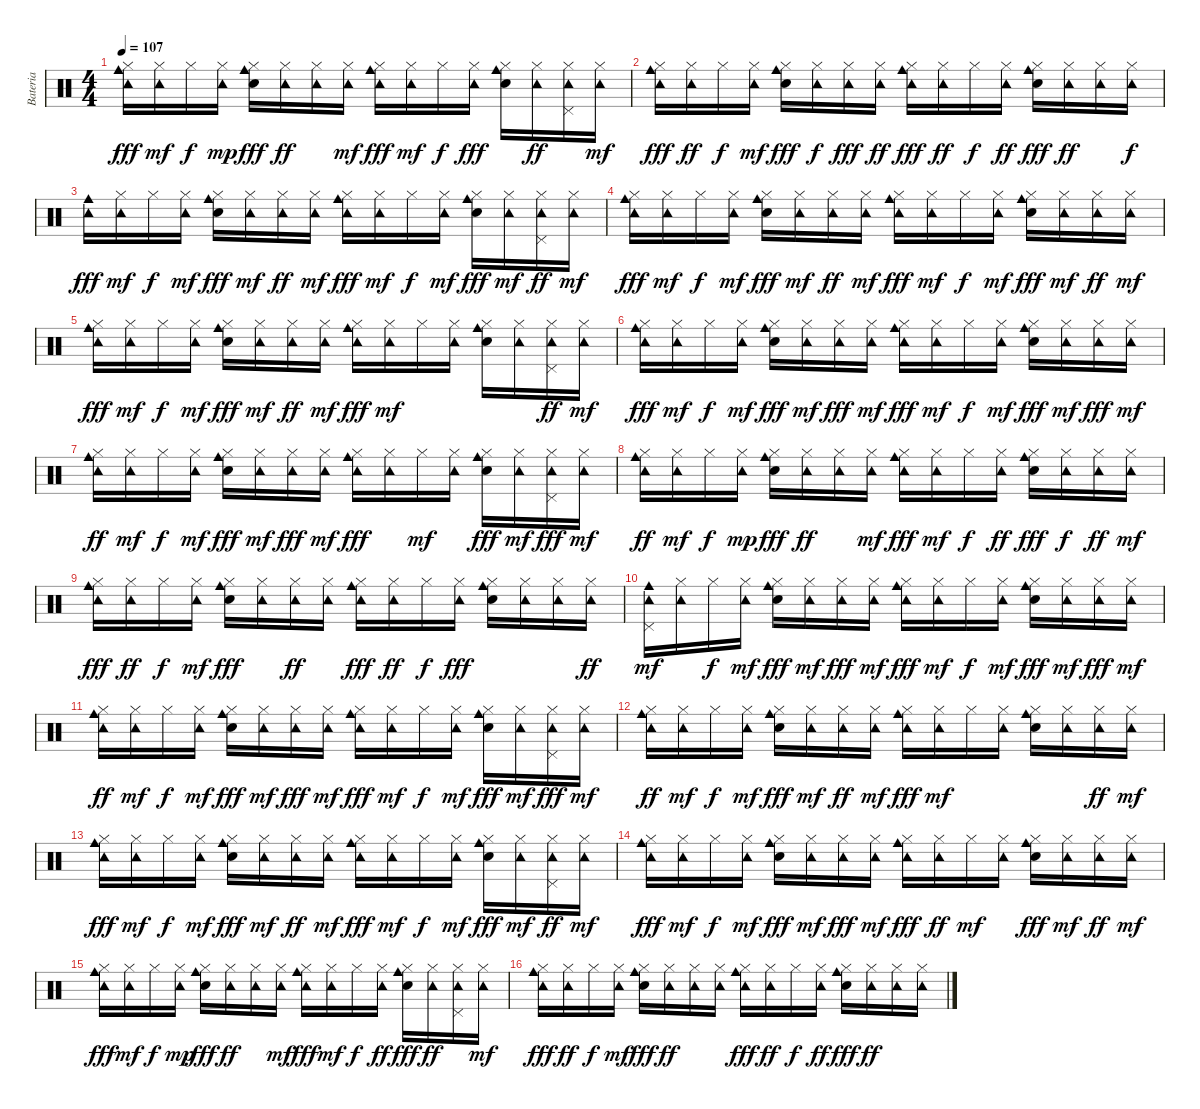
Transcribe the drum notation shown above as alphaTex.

\track ("Bateria" "Bateria") {instrument percussion}
\staff {score}
\articulation defaults
\ts (4 4)
\tempo 107
\clef neutral
\ks c
("Cowbell medium (hit)" "Tambourine (hit)" "Hi-Hat (closed)").16{dy fff} ("Tambourine (hit)" "Hi-Hat (closed)").16{dy mf} "Hi-Hat (closed)".16{dy f} ("Tambourine (hit)" "Hi-Hat (closed)").16{dy mp} ("Hand Clap (hit)" "Cowbell medium (hit)" "Hi-Hat (closed)").16{dy fff} ("Tambourine (hit)" "Hi-Hat (closed)").16{dy ff} ("Tambourine (hit)" "Hi-Hat (closed)").16 ("Tambourine (hit)" "Hi-Hat (closed)").16{dy mf} ("Cowbell medium (hit)" "Tambourine (hit)" "Hi-Hat (closed)").16{dy fff} ("Tambourine (hit)" "Hi-Hat (closed)").16{dy mf} "Hi-Hat (closed)".16{dy f} ("Tambourine (hit)" "Hi-Hat (closed)").16{dy fff} ("Hand Clap (hit)" "Cowbell medium (hit)" "Hi-Hat (closed)").16 ("Tambourine (hit)" "Hi-Hat (closed)").16{dy ff} ("Tambourine (hit)" "Pedal Hi-Hat (hit)" "Hi-Hat (closed)").16 ("Tambourine (hit)" "Hi-Hat (closed)").16{dy mf} |
("Cowbell medium (hit)" "Tambourine (hit)" "Hi-Hat (closed)").16{dy fff} ("Tambourine (hit)" "Hi-Hat (closed)").16{dy ff} "Hi-Hat (closed)".16{dy f} ("Tambourine (hit)" "Hi-Hat (closed)").16{dy mf} ("Hand Clap (hit)" "Cowbell medium (hit)" "Hi-Hat (closed)").16{dy fff} ("Tambourine (hit)" "Hi-Hat (closed)").16{dy f} ("Tambourine (hit)" "Hi-Hat (closed)").16{dy fff} ("Tambourine (hit)" "Hi-Hat (closed)").16{dy ff} ("Cowbell medium (hit)" "Tambourine (hit)" "Hi-Hat (closed)").16{dy fff} ("Tambourine (hit)" "Hi-Hat (closed)").16{dy ff} "Hi-Hat (closed)".16{dy f} ("Tambourine (hit)" "Hi-Hat (closed)").16{dy ff} ("Hand Clap (hit)" "Cowbell medium (hit)" "Hi-Hat (closed)").16{dy fff} ("Tambourine (hit)" "Hi-Hat (closed)").16{dy ff} ("Tambourine (hit)" "Hi-Hat (closed)").16 ("Tambourine (hit)" "Hi-Hat (closed)").16{dy f} |
("Cowbell medium (hit)" "Tambourine (hit)").16{dy fff} ("Tambourine (hit)" "Hi-Hat (closed)").16{dy mf} "Hi-Hat (closed)".16{dy f} ("Tambourine (hit)" "Hi-Hat (closed)").16{dy mf} ("Hand Clap (hit)" "Cowbell medium (hit)" "Hi-Hat (closed)").16{dy fff} ("Tambourine (hit)" "Hi-Hat (closed)").16{dy mf} ("Tambourine (hit)" "Hi-Hat (closed)").16{dy ff} ("Tambourine (hit)" "Hi-Hat (closed)").16{dy mf} ("Cowbell medium (hit)" "Tambourine (hit)" "Hi-Hat (closed)").16{dy fff} ("Tambourine (hit)" "Hi-Hat (closed)").16{dy mf} "Hi-Hat (closed)".16{dy f} ("Tambourine (hit)" "Hi-Hat (closed)").16{dy mf} ("Hand Clap (hit)" "Cowbell medium (hit)" "Hi-Hat (closed)").16{dy fff} ("Tambourine (hit)" "Hi-Hat (closed)").16{dy mf} ("Tambourine (hit)" "Pedal Hi-Hat (hit)" "Hi-Hat (closed)").16{dy ff} ("Tambourine (hit)" "Hi-Hat (closed)").16{dy mf} |
("Cowbell medium (hit)" "Tambourine (hit)" "Hi-Hat (closed)").16{dy fff} ("Tambourine (hit)" "Hi-Hat (closed)").16{dy mf} "Hi-Hat (closed)".16{dy f} ("Tambourine (hit)" "Hi-Hat (closed)").16{dy mf} ("Hand Clap (hit)" "Cowbell medium (hit)" "Hi-Hat (closed)").16{dy fff} ("Tambourine (hit)" "Hi-Hat (closed)").16{dy mf} ("Tambourine (hit)" "Hi-Hat (closed)").16{dy ff} ("Tambourine (hit)" "Hi-Hat (closed)").16{dy mf} ("Cowbell medium (hit)" "Tambourine (hit)" "Hi-Hat (closed)").16{dy fff} ("Tambourine (hit)" "Hi-Hat (closed)").16{dy mf} "Hi-Hat (closed)".16{dy f} ("Tambourine (hit)" "Hi-Hat (closed)").16{dy mf} ("Hand Clap (hit)" "Cowbell medium (hit)" "Hi-Hat (closed)").16{dy fff} ("Tambourine (hit)" "Hi-Hat (closed)").16{dy mf} ("Tambourine (hit)" "Hi-Hat (closed)").16{dy ff} ("Tambourine (hit)" "Hi-Hat (closed)").16{dy mf} |
("Cowbell medium (hit)" "Tambourine (hit)" "Hi-Hat (closed)").16{dy fff} ("Tambourine (hit)" "Hi-Hat (closed)").16{dy mf} "Hi-Hat (closed)".16{dy f} ("Tambourine (hit)" "Hi-Hat (closed)").16{dy mf} ("Hand Clap (hit)" "Cowbell medium (hit)" "Hi-Hat (closed)").16{dy fff} ("Tambourine (hit)" "Hi-Hat (closed)").16{dy mf} ("Tambourine (hit)" "Hi-Hat (closed)").16{dy ff} ("Tambourine (hit)" "Hi-Hat (closed)").16{dy mf} ("Cowbell medium (hit)" "Tambourine (hit)" "Hi-Hat (closed)").16{dy fff} ("Tambourine (hit)" "Hi-Hat (closed)").16{dy mf} "Hi-Hat (closed)".16 ("Tambourine (hit)" "Hi-Hat (closed)").16 ("Hand Clap (hit)" "Cowbell medium (hit)" "Hi-Hat (closed)").16 ("Tambourine (hit)" "Hi-Hat (closed)").16 ("Tambourine (hit)" "Pedal Hi-Hat (hit)" "Hi-Hat (closed)").16{dy ff} ("Tambourine (hit)" "Hi-Hat (closed)").16{dy mf} |
("Cowbell medium (hit)" "Tambourine (hit)" "Hi-Hat (closed)").16{dy fff} ("Tambourine (hit)" "Hi-Hat (closed)").16{dy mf} "Hi-Hat (closed)".16{dy f} ("Tambourine (hit)" "Hi-Hat (closed)").16{dy mf} ("Hand Clap (hit)" "Cowbell medium (hit)" "Hi-Hat (closed)").16{dy fff} ("Tambourine (hit)" "Hi-Hat (closed)").16{dy mf} ("Tambourine (hit)" "Hi-Hat (closed)").16{dy fff} ("Tambourine (hit)" "Hi-Hat (closed)").16{dy mf} ("Cowbell medium (hit)" "Tambourine (hit)" "Hi-Hat (closed)").16{dy fff} ("Tambourine (hit)" "Hi-Hat (closed)").16{dy mf} "Hi-Hat (closed)".16{dy f} ("Tambourine (hit)" "Hi-Hat (closed)").16{dy mf} ("Hand Clap (hit)" "Cowbell medium (hit)" "Hi-Hat (closed)").16{dy fff} ("Tambourine (hit)" "Hi-Hat (closed)").16{dy mf} ("Tambourine (hit)" "Hi-Hat (closed)").16{dy fff} ("Tambourine (hit)" "Hi-Hat (closed)").16{dy mf} |
("Cowbell medium (hit)" "Tambourine (hit)" "Hi-Hat (closed)").16{dy ff} ("Tambourine (hit)" "Hi-Hat (closed)").16{dy mf} "Hi-Hat (closed)".16{dy f} ("Tambourine (hit)" "Hi-Hat (closed)").16{dy mf} ("Hand Clap (hit)" "Cowbell medium (hit)" "Hi-Hat (closed)").16{dy fff} ("Tambourine (hit)" "Hi-Hat (closed)").16{dy mf} ("Tambourine (hit)" "Hi-Hat (closed)").16{dy fff} ("Tambourine (hit)" "Hi-Hat (closed)").16{dy mf} ("Cowbell medium (hit)" "Tambourine (hit)" "Hi-Hat (closed)").16{dy fff} ("Tambourine (hit)" "Hi-Hat (closed)").16 "Hi-Hat (closed)".16{dy mf} ("Tambourine (hit)" "Hi-Hat (closed)").16 ("Hand Clap (hit)" "Cowbell medium (hit)" "Hi-Hat (closed)").16{dy fff} ("Tambourine (hit)" "Hi-Hat (closed)").16{dy mf} ("Tambourine (hit)" "Pedal Hi-Hat (hit)" "Hi-Hat (closed)").16{dy fff} ("Tambourine (hit)" "Hi-Hat (closed)").16{dy mf} |
("Cowbell medium (hit)" "Tambourine (hit)" "Hi-Hat (closed)").16{dy ff} ("Tambourine (hit)" "Hi-Hat (closed)").16{dy mf} "Hi-Hat (closed)".16{dy f} ("Tambourine (hit)" "Hi-Hat (closed)").16{dy mp} ("Hand Clap (hit)" "Cowbell medium (hit)" "Hi-Hat (closed)").16{dy fff} ("Tambourine (hit)" "Hi-Hat (closed)").16{dy ff} ("Tambourine (hit)" "Hi-Hat (closed)").16 ("Tambourine (hit)" "Hi-Hat (closed)").16{dy mf} ("Cowbell medium (hit)" "Tambourine (hit)" "Hi-Hat (closed)").16{dy fff} ("Tambourine (hit)" "Hi-Hat (closed)").16{dy mf} "Hi-Hat (closed)".16{dy f} ("Tambourine (hit)" "Hi-Hat (closed)").16{dy ff} ("Hand Clap (hit)" "Cowbell medium (hit)" "Hi-Hat (closed)").16{dy fff} ("Tambourine (hit)" "Hi-Hat (closed)").16{dy f} ("Tambourine (hit)" "Hi-Hat (closed)").16{dy ff} ("Tambourine (hit)" "Hi-Hat (closed)").16{dy mf} |
("Cowbell medium (hit)" "Tambourine (hit)" "Hi-Hat (closed)").16{dy fff} ("Tambourine (hit)" "Hi-Hat (closed)").16{dy ff} "Hi-Hat (closed)".16{dy f} ("Tambourine (hit)" "Hi-Hat (closed)").16{dy mf} ("Hand Clap (hit)" "Cowbell medium (hit)" "Hi-Hat (closed)").16{dy fff} ("Tambourine (hit)" "Hi-Hat (closed)").16 ("Tambourine (hit)" "Hi-Hat (closed)").16{dy ff} ("Tambourine (hit)" "Hi-Hat (closed)").16 ("Cowbell medium (hit)" "Tambourine (hit)" "Hi-Hat (closed)").16{dy fff} ("Tambourine (hit)" "Hi-Hat (closed)").16{dy ff} "Hi-Hat (closed)".16{dy f} ("Tambourine (hit)" "Hi-Hat (closed)").16{dy fff} ("Hand Clap (hit)" "Cowbell medium (hit)" "Hi-Hat (closed)").16 ("Tambourine (hit)" "Hi-Hat (closed)").16 ("Tambourine (hit)" "Hi-Hat (closed)").16 ("Tambourine (hit)" "Hi-Hat (closed)").16{dy ff} |
("Cowbell medium (hit)" "Tambourine (hit)" "Pedal Hi-Hat (hit)").16{dy mf} ("Tambourine (hit)" "Hi-Hat (closed)").16 "Hi-Hat (closed)".16{dy f} ("Tambourine (hit)" "Hi-Hat (closed)").16{dy mf} ("Hand Clap (hit)" "Cowbell medium (hit)" "Hi-Hat (closed)").16{dy fff} ("Tambourine (hit)" "Hi-Hat (closed)").16{dy mf} ("Tambourine (hit)" "Hi-Hat (closed)").16{dy fff} ("Tambourine (hit)" "Hi-Hat (closed)").16{dy mf} ("Cowbell medium (hit)" "Tambourine (hit)" "Hi-Hat (closed)").16{dy fff} ("Tambourine (hit)" "Hi-Hat (closed)").16{dy mf} "Hi-Hat (closed)".16{dy f} ("Tambourine (hit)" "Hi-Hat (closed)").16{dy mf} ("Hand Clap (hit)" "Cowbell medium (hit)" "Hi-Hat (closed)").16{dy fff} ("Tambourine (hit)" "Hi-Hat (closed)").16{dy mf} ("Tambourine (hit)" "Hi-Hat (closed)").16{dy fff} ("Tambourine (hit)" "Hi-Hat (closed)").16{dy mf} |
("Cowbell medium (hit)" "Tambourine (hit)" "Hi-Hat (closed)").16{dy ff} ("Tambourine (hit)" "Hi-Hat (closed)").16{dy mf} "Hi-Hat (closed)".16{dy f} ("Tambourine (hit)" "Hi-Hat (closed)").16{dy mf} ("Hand Clap (hit)" "Cowbell medium (hit)" "Hi-Hat (closed)").16{dy fff} ("Tambourine (hit)" "Hi-Hat (closed)").16{dy mf} ("Tambourine (hit)" "Hi-Hat (closed)").16{dy fff} ("Tambourine (hit)" "Hi-Hat (closed)").16{dy mf} ("Cowbell medium (hit)" "Tambourine (hit)" "Hi-Hat (closed)").16{dy fff} ("Tambourine (hit)" "Hi-Hat (closed)").16{dy mf} "Hi-Hat (closed)".16{dy f} ("Tambourine (hit)" "Hi-Hat (closed)").16{dy mf} ("Hand Clap (hit)" "Cowbell medium (hit)" "Hi-Hat (closed)").16{dy fff} ("Tambourine (hit)" "Hi-Hat (closed)").16{dy mf} ("Tambourine (hit)" "Pedal Hi-Hat (hit)" "Hi-Hat (closed)").16{dy fff} ("Tambourine (hit)" "Hi-Hat (closed)").16{dy mf} |
("Cowbell medium (hit)" "Tambourine (hit)" "Hi-Hat (closed)").16{dy ff} ("Tambourine (hit)" "Hi-Hat (closed)").16{dy mf} "Hi-Hat (closed)".16{dy f} ("Tambourine (hit)" "Hi-Hat (closed)").16{dy mf} ("Hand Clap (hit)" "Cowbell medium (hit)" "Hi-Hat (closed)").16{dy fff} ("Tambourine (hit)" "Hi-Hat (closed)").16{dy mf} ("Tambourine (hit)" "Hi-Hat (closed)").16{dy ff} ("Tambourine (hit)" "Hi-Hat (closed)").16{dy mf} ("Cowbell medium (hit)" "Tambourine (hit)" "Hi-Hat (closed)").16{dy fff} ("Tambourine (hit)" "Hi-Hat (closed)").16{dy mf} "Hi-Hat (closed)".16 ("Tambourine (hit)" "Hi-Hat (closed)").16 ("Hand Clap (hit)" "Cowbell medium (hit)" "Hi-Hat (closed)").16 ("Tambourine (hit)" "Hi-Hat (closed)").16 ("Tambourine (hit)" "Hi-Hat (closed)").16{dy ff} ("Tambourine (hit)" "Hi-Hat (closed)").16{dy mf} |
("Cowbell medium (hit)" "Tambourine (hit)" "Hi-Hat (closed)").16{dy fff} ("Tambourine (hit)" "Hi-Hat (closed)").16{dy mf} "Hi-Hat (closed)".16{dy f} ("Tambourine (hit)" "Hi-Hat (closed)").16{dy mf} ("Hand Clap (hit)" "Cowbell medium (hit)" "Hi-Hat (closed)").16{dy fff} ("Tambourine (hit)" "Hi-Hat (closed)").16{dy mf} ("Tambourine (hit)" "Hi-Hat (closed)").16{dy ff} ("Tambourine (hit)" "Hi-Hat (closed)").16{dy mf} ("Cowbell medium (hit)" "Tambourine (hit)" "Hi-Hat (closed)").16{dy fff} ("Tambourine (hit)" "Hi-Hat (closed)").16{dy mf} "Hi-Hat (closed)".16{dy f} ("Tambourine (hit)" "Hi-Hat (closed)").16{dy mf} ("Hand Clap (hit)" "Cowbell medium (hit)" "Hi-Hat (closed)").16{dy fff} ("Tambourine (hit)" "Hi-Hat (closed)").16{dy mf} ("Tambourine (hit)" "Pedal Hi-Hat (hit)" "Hi-Hat (closed)").16{dy ff} ("Tambourine (hit)" "Hi-Hat (closed)").16{dy mf} |
("Cowbell medium (hit)" "Tambourine (hit)" "Hi-Hat (closed)").16{dy fff} ("Tambourine (hit)" "Hi-Hat (closed)").16{dy mf} "Hi-Hat (closed)".16{dy f} ("Tambourine (hit)" "Hi-Hat (closed)").16{dy mf} ("Hand Clap (hit)" "Cowbell medium (hit)" "Hi-Hat (closed)").16{dy fff} ("Tambourine (hit)" "Hi-Hat (closed)").16{dy mf} ("Tambourine (hit)" "Hi-Hat (closed)").16{dy fff} ("Tambourine (hit)" "Hi-Hat (closed)").16{dy mf} ("Cowbell medium (hit)" "Tambourine (hit)" "Hi-Hat (closed)").16{dy fff} ("Tambourine (hit)" "Hi-Hat (closed)").16{dy ff} "Hi-Hat (closed)".16{dy mf} ("Tambourine (hit)" "Hi-Hat (closed)").16 ("Hand Clap (hit)" "Cowbell medium (hit)" "Hi-Hat (closed)").16{dy fff} ("Tambourine (hit)" "Hi-Hat (closed)").16{dy mf} ("Tambourine (hit)" "Hi-Hat (closed)").16{dy ff} ("Tambourine (hit)" "Hi-Hat (closed)").16{dy mf} |
("Cowbell medium (hit)" "Tambourine (hit)" "Hi-Hat (closed)").16{dy fff} ("Tambourine (hit)" "Hi-Hat (closed)").16{dy mf} "Hi-Hat (closed)".16{dy f} ("Tambourine (hit)" "Hi-Hat (closed)").16{dy mp} ("Hand Clap (hit)" "Cowbell medium (hit)" "Hi-Hat (closed)").16{dy fff} ("Tambourine (hit)" "Hi-Hat (closed)").16{dy ff} ("Tambourine (hit)" "Hi-Hat (closed)").16 ("Tambourine (hit)" "Hi-Hat (closed)").16{dy mf} ("Cowbell medium (hit)" "Tambourine (hit)" "Hi-Hat (closed)").16{dy fff} ("Tambourine (hit)" "Hi-Hat (closed)").16{dy mf} "Hi-Hat (closed)".16{dy f} ("Tambourine (hit)" "Hi-Hat (closed)").16{dy ff} ("Hand Clap (hit)" "Cowbell medium (hit)" "Hi-Hat (closed)").16{dy fff} ("Tambourine (hit)" "Hi-Hat (closed)").16{dy ff} ("Tambourine (hit)" "Pedal Hi-Hat (hit)" "Hi-Hat (closed)").16 ("Tambourine (hit)" "Hi-Hat (closed)").16{dy mf} |
("Cowbell medium (hit)" "Tambourine (hit)" "Hi-Hat (closed)").16{dy fff} ("Tambourine (hit)" "Hi-Hat (closed)").16{dy ff} "Hi-Hat (closed)".16{dy f} ("Tambourine (hit)" "Hi-Hat (closed)").16{dy mf} ("Hand Clap (hit)" "Cowbell medium (hit)" "Hi-Hat (closed)").16{dy fff} ("Tambourine (hit)" "Hi-Hat (closed)").16{dy ff} ("Tambourine (hit)" "Hi-Hat (closed)").16 ("Tambourine (hit)" "Hi-Hat (closed)").16 ("Cowbell medium (hit)" "Tambourine (hit)" "Hi-Hat (closed)").16{dy fff} ("Tambourine (hit)" "Hi-Hat (closed)").16{dy ff} "Hi-Hat (closed)".16{dy f} ("Tambourine (hit)" "Hi-Hat (closed)").16{dy ff} ("Hand Clap (hit)" "Cowbell medium (hit)" "Hi-Hat (closed)").16{dy fff} ("Tambourine (hit)" "Hi-Hat (closed)").16{dy ff} ("Tambourine (hit)" "Hi-Hat (closed)").16 ("Tambourine (hit)" "Hi-Hat (closed)").16
